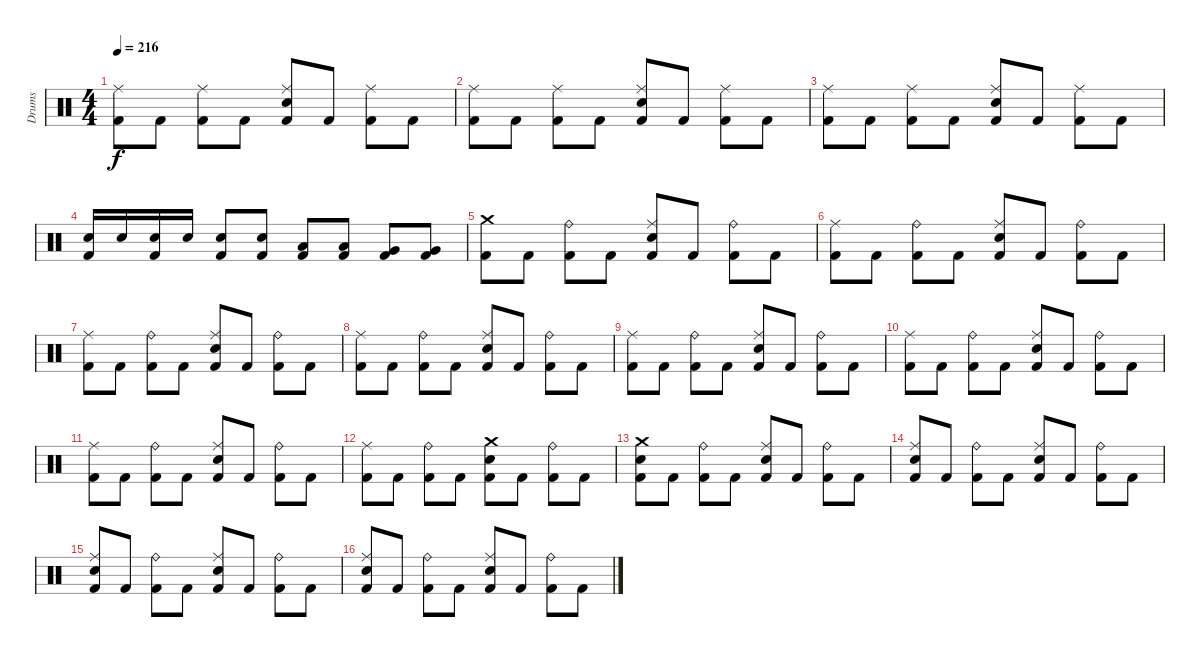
\track ("Drums" "Drums") {instrument percussion}
\staff {score}
\articulation defaults
\ts (4 4)
\tempo 216
\clef neutral
\ks c
("Kick (hit) 2" "Ride (middle)").8{dy f} "Kick (hit) 2".8 ("Kick (hit) 2" "Ride (middle)").8 "Kick (hit) 2".8 ("Kick (hit) 2" "Electric Snare (hit)" "Ride (middle)").8 "Kick (hit) 2".8 ("Kick (hit) 2" "Ride (middle)").8 "Kick (hit) 2".8 |
("Kick (hit) 2" "Ride (middle)").8 "Kick (hit) 2".8 ("Kick (hit) 2" "Ride (middle)").8 "Kick (hit) 2".8 ("Kick (hit) 2" "Electric Snare (hit)" "Ride (middle)").8 "Kick (hit) 2".8 ("Kick (hit) 2" "Ride (middle)").8 "Kick (hit) 2".8 |
("Kick (hit) 2" "Ride (middle)").8 "Kick (hit) 2".8 ("Kick (hit) 2" "Ride (middle)").8 "Kick (hit) 2".8 ("Kick (hit) 2" "Electric Snare (hit)" "Ride (middle)").8 "Kick (hit) 2".8 ("Kick (hit) 2" "Ride (middle)").8 "Kick (hit) 2".8 |
("Electric Snare (hit)" "Kick (hit) 2").16 "Electric Snare (hit)".16 ("Electric Snare (hit)" "Kick (hit) 2").16 "Electric Snare (hit)".16 ("Electric Snare (hit)" "Kick (hit) 2").8 ("Electric Snare (hit)" "Kick (hit) 2").8 ("Low Tom (hit)" "Kick (hit) 2").8 ("Low Tom (hit)" "Kick (hit) 2").8 ("Very Low Tom (hit)" "Kick (hit) 2").8 ("Very Low Tom (hit)" "Kick (hit) 2").8 |
("Kick (hit) 2" "Crash medium (hit)").8 "Kick (hit) 2".8 ("Kick (hit) 2" "Ride (bell)").8 "Kick (hit) 2".8 ("Kick (hit) 2" "Electric Snare (hit)" "Ride (middle)").8 "Kick (hit) 2".8 ("Kick (hit) 2" "Ride (bell)").8 "Kick (hit) 2".8 |
("Kick (hit) 2" "Ride (middle)").8 "Kick (hit) 2".8 ("Kick (hit) 2" "Ride (bell)").8 "Kick (hit) 2".8 ("Kick (hit) 2" "Electric Snare (hit)" "Ride (middle)").8 "Kick (hit) 2".8 ("Kick (hit) 2" "Ride (bell)").8 "Kick (hit) 2".8 |
("Kick (hit) 2" "Ride (middle)").8 "Kick (hit) 2".8 ("Kick (hit) 2" "Ride (bell)").8 "Kick (hit) 2".8 ("Kick (hit) 2" "Electric Snare (hit)" "Ride (middle)").8 "Kick (hit) 2".8 ("Kick (hit) 2" "Ride (bell)").8 "Kick (hit) 2".8 |
("Kick (hit) 2" "Ride (middle)").8 "Kick (hit) 2".8 ("Kick (hit) 2" "Ride (bell)").8 "Kick (hit) 2".8 ("Kick (hit) 2" "Electric Snare (hit)" "Ride (middle)").8 "Kick (hit) 2".8 ("Kick (hit) 2" "Ride (bell)").8 "Kick (hit) 2".8 |
("Kick (hit) 2" "Ride (middle)").8 "Kick (hit) 2".8 ("Kick (hit) 2" "Ride (bell)").8 "Kick (hit) 2".8 ("Kick (hit) 2" "Electric Snare (hit)" "Ride (middle)").8 "Kick (hit) 2".8 ("Kick (hit) 2" "Ride (bell)").8 "Kick (hit) 2".8 |
("Kick (hit) 2" "Ride (middle)").8 "Kick (hit) 2".8 ("Kick (hit) 2" "Ride (bell)").8 "Kick (hit) 2".8 ("Kick (hit) 2" "Electric Snare (hit)" "Ride (middle)").8 "Kick (hit) 2".8 ("Kick (hit) 2" "Ride (bell)").8 "Kick (hit) 2".8 |
("Kick (hit) 2" "Ride (middle)").8 "Kick (hit) 2".8 ("Kick (hit) 2" "Ride (bell)").8 "Kick (hit) 2".8 ("Kick (hit) 2" "Electric Snare (hit)" "Ride (middle)").8 "Kick (hit) 2".8 ("Kick (hit) 2" "Ride (bell)").8 "Kick (hit) 2".8 |
("Kick (hit) 2" "Ride (middle)").8 "Kick (hit) 2".8 ("Kick (hit) 2" "Ride (bell)").8 "Kick (hit) 2".8 ("Kick (hit) 2" "Electric Snare (hit)" "Crash medium (hit)").8 "Kick (hit) 2".8 ("Kick (hit) 2" "Ride (bell)").8 "Kick (hit) 2".8 |
("Kick (hit) 2" "Crash medium (hit)" "Electric Snare (hit)").8 "Kick (hit) 2".8 ("Kick (hit) 2" "Ride (bell)").8 "Kick (hit) 2".8 ("Kick (hit) 2" "Electric Snare (hit)" "Ride (middle)").8 "Kick (hit) 2".8 ("Kick (hit) 2" "Ride (bell)").8 "Kick (hit) 2".8 |
("Kick (hit) 2" "Ride (middle)" "Electric Snare (hit)").8 "Kick (hit) 2".8 ("Kick (hit) 2" "Ride (bell)").8 "Kick (hit) 2".8 ("Kick (hit) 2" "Electric Snare (hit)" "Ride (middle)").8 "Kick (hit) 2".8 ("Kick (hit) 2" "Ride (bell)").8 "Kick (hit) 2".8 |
("Kick (hit) 2" "Ride (middle)" "Electric Snare (hit)").8 "Kick (hit) 2".8 ("Kick (hit) 2" "Ride (bell)").8 "Kick (hit) 2".8 ("Kick (hit) 2" "Electric Snare (hit)" "Ride (middle)").8 "Kick (hit) 2".8 ("Kick (hit) 2" "Ride (bell)").8 "Kick (hit) 2".8 |
("Kick (hit) 2" "Ride (middle)" "Electric Snare (hit)").8 "Kick (hit) 2".8 ("Kick (hit) 2" "Ride (bell)").8 "Kick (hit) 2".8 ("Kick (hit) 2" "Electric Snare (hit)" "Ride (middle)").8 "Kick (hit) 2".8 ("Kick (hit) 2" "Ride (bell)").8 "Kick (hit) 2".8
